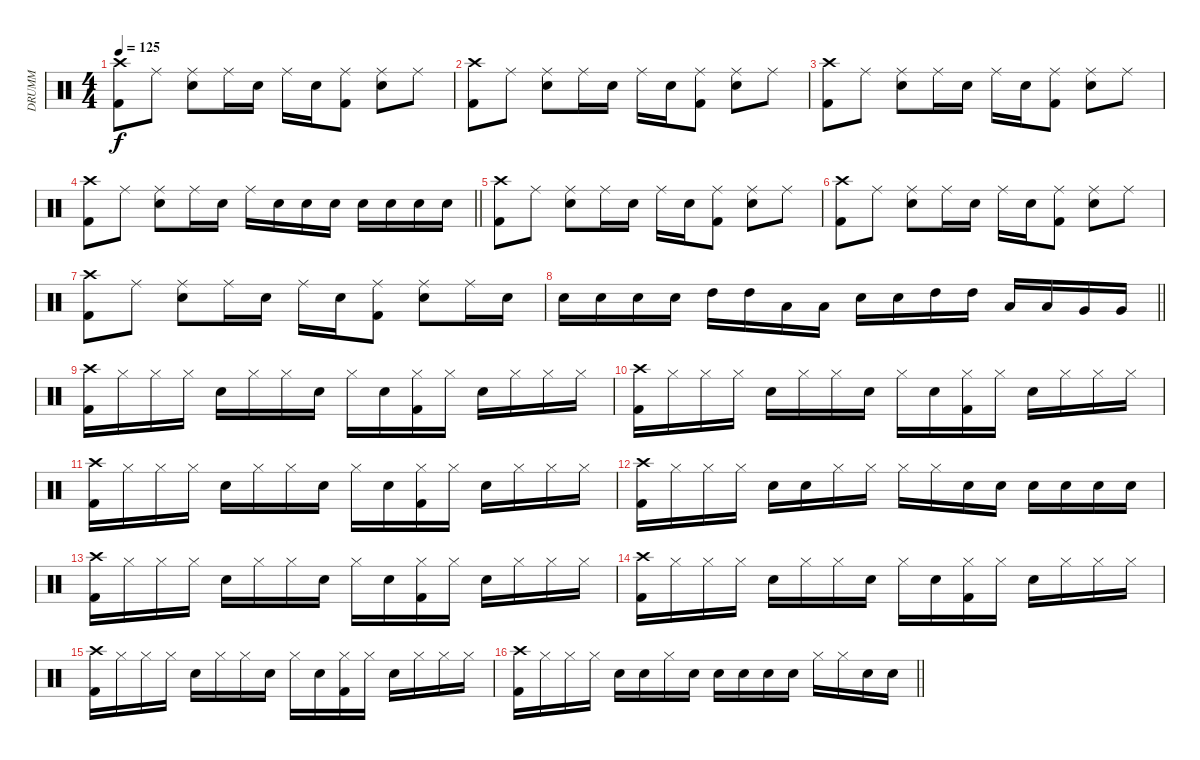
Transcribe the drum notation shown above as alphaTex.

\track ("DRUMM" "DRUMM") {instrument percussion}
\staff {score}
\articulation defaults
\ts (4 4)
\tempo 125
\clef neutral
\ks c
("Kick (hit) 2" "Crash high (hit)").8{dy f} "Ride (middle)".8 ("Ride (middle)" "Snare (hit) 2").8 "Ride (middle)".16 "Snare (hit) 2".16 "Ride (middle)".16 "Snare (hit) 2".16 ("Kick (hit) 2" "Ride (middle)").8 ("Ride (middle)" "Snare (hit) 2").8 "Ride (middle)".8 |
("Kick (hit) 2" "Crash high (hit)").8 "Ride (middle)".8 ("Ride (middle)" "Snare (hit) 2").8 "Ride (middle)".16 "Snare (hit) 2".16 "Ride (middle)".16 "Snare (hit) 2".16 ("Kick (hit) 2" "Ride (middle)").8 ("Ride (middle)" "Snare (hit) 2").8 "Ride (middle)".8 |
("Kick (hit) 2" "Crash high (hit)").8 "Ride (middle)".8 ("Ride (middle)" "Snare (hit) 2").8 "Ride (middle)".16 "Snare (hit) 2".16 "Ride (middle)".16 "Snare (hit) 2".16 ("Kick (hit) 2" "Ride (middle)").8 ("Ride (middle)" "Snare (hit) 2").8 "Ride (middle)".8 |
\barLineRight lightlight
("Kick (hit) 2" "Crash high (hit)").8 "Ride (middle)".8 ("Ride (middle)" "Snare (hit) 2").8 "Ride (middle)".16 "Snare (hit) 2".16 "Ride (middle)".16 "Snare (hit) 2".16 "Snare (hit) 2".16 "Snare (hit) 2".16 "Snare (hit) 2".16 "Snare (hit) 2".16 "Snare (hit) 2".16 "Snare (hit) 2".16 |
("Kick (hit) 2" "Crash high (hit)").8 "Ride (middle)".8 ("Ride (middle)" "Snare (hit) 2").8 "Ride (middle)".16 "Snare (hit) 2".16 "Ride (middle)".16 "Snare (hit) 2".16 ("Kick (hit) 2" "Ride (middle)").8 ("Ride (middle)" "Snare (hit) 2").8 "Ride (middle)".8 |
("Kick (hit) 2" "Crash high (hit)").8 "Ride (middle)".8 ("Ride (middle)" "Snare (hit) 2").8 "Ride (middle)".16 "Snare (hit) 2".16 "Ride (middle)".16 "Snare (hit) 2".16 ("Kick (hit) 2" "Ride (middle)").8 ("Ride (middle)" "Snare (hit) 2").8 "Ride (middle)".8 |
("Kick (hit) 2" "Crash high (hit)").8 "Ride (middle)".8 ("Ride (middle)" "Snare (hit) 2").8 "Ride (middle)".16 "Snare (hit) 2".16 "Ride (middle)".16 "Snare (hit) 2".16 ("Kick (hit) 2" "Ride (middle)").8 ("Ride (middle)" "Snare (hit) 2").8 "Ride (middle)".16 "Snare (hit) 2".16 |
\barLineRight lightlight "Snare (hit) 2".16 "Snare (hit) 2".16 "Snare (hit) 2".16 "Snare (hit) 2".16 "High Tom (hit)".16 "High Tom (hit)".16 "Low Tom (hit)".16 "Low Tom (hit)".16 "Snare (hit) 2".16 "Snare (hit) 2".16 "High Tom (hit)".16 "High Tom (hit)".16 "Low Tom (hit)".16 "Low Tom (hit)".16 "Very Low Tom (hit)".16 "Very Low Tom (hit)".16
|
("Kick (hit) 2" "Crash high (hit)").16 "Hi-Hat (closed)".16 "Hi-Hat (closed)".16 "Hi-Hat (closed)".16 "Snare (hit) 2".16 "Hi-Hat (closed)".16 "Hi-Hat (closed)".16 "Snare (hit) 2".16 "Hi-Hat (closed)".16 "Snare (hit) 2".16 ("Kick (hit) 2" "Hi-Hat (closed)").16 "Hi-Hat (closed)".16 "Snare (hit) 2".16 "Hi-Hat (closed)".16 "Hi-Hat (closed)".16 "Hi-Hat (closed)".16 |
("Kick (hit) 2" "Crash high (hit)").16 "Hi-Hat (closed)".16 "Hi-Hat (closed)".16 "Hi-Hat (closed)".16 "Snare (hit) 2".16 "Hi-Hat (closed)".16 "Hi-Hat (closed)".16 "Snare (hit) 2".16 "Hi-Hat (closed)".16 "Snare (hit) 2".16 ("Kick (hit) 2" "Hi-Hat (closed)").16 "Hi-Hat (closed)".16 "Snare (hit) 2".16 "Hi-Hat (closed)".16 "Hi-Hat (closed)".16 "Hi-Hat (closed)".16 |
("Kick (hit) 2" "Crash high (hit)").16 "Hi-Hat (closed)".16 "Hi-Hat (closed)".16 "Hi-Hat (closed)".16 "Snare (hit) 2".16 "Hi-Hat (closed)".16 "Hi-Hat (closed)".16 "Snare (hit) 2".16 "Hi-Hat (closed)".16 "Snare (hit) 2".16 ("Kick (hit) 2" "Hi-Hat (closed)").16 "Hi-Hat (closed)".16 "Snare (hit) 2".16 "Hi-Hat (closed)".16 "Hi-Hat (closed)".16 "Hi-Hat (closed)".16 |
("Kick (hit) 2" "Crash high (hit)").16 "Hi-Hat (closed)".16 "Hi-Hat (closed)".16 "Hi-Hat (closed)".16 "Snare (hit) 2".16 "Snare (hit) 2".16 "Hi-Hat (closed)".16 "Hi-Hat (closed)".16 "Hi-Hat (closed)".16 "Hi-Hat (closed)".16 "Snare (hit) 2".16 "Snare (hit) 2".16 "Snare (hit) 2".16 "Snare (hit) 2".16 "Snare (hit) 2".16 "Snare (hit) 2".16 |
("Kick (hit) 2" "Crash high (hit)").16 "Hi-Hat (closed)".16 "Hi-Hat (closed)".16 "Hi-Hat (closed)".16 "Snare (hit) 2".16 "Hi-Hat (closed)".16 "Hi-Hat (closed)".16 "Snare (hit) 2".16 "Hi-Hat (closed)".16 "Snare (hit) 2".16 ("Kick (hit) 2" "Hi-Hat (closed)").16 "Hi-Hat (closed)".16 "Snare (hit) 2".16 "Hi-Hat (closed)".16 "Hi-Hat (closed)".16 "Hi-Hat (closed)".16 |
("Kick (hit) 2" "Crash high (hit)").16 "Hi-Hat (closed)".16 "Hi-Hat (closed)".16 "Hi-Hat (closed)".16 "Snare (hit) 2".16 "Hi-Hat (closed)".16 "Hi-Hat (closed)".16 "Snare (hit) 2".16 "Hi-Hat (closed)".16 "Snare (hit) 2".16 ("Kick (hit) 2" "Hi-Hat (closed)").16 "Hi-Hat (closed)".16 "Snare (hit) 2".16 "Hi-Hat (closed)".16 "Hi-Hat (closed)".16 "Hi-Hat (closed)".16 |
("Kick (hit) 2" "Crash high (hit)").16 "Hi-Hat (closed)".16 "Hi-Hat (closed)".16 "Hi-Hat (closed)".16 "Snare (hit) 2".16 "Hi-Hat (closed)".16 "Hi-Hat (closed)".16 "Snare (hit) 2".16 "Hi-Hat (closed)".16 "Snare (hit) 2".16 ("Kick (hit) 2" "Hi-Hat (closed)").16 "Hi-Hat (closed)".16 "Snare (hit) 2".16 "Hi-Hat (closed)".16 "Hi-Hat (closed)".16 "Hi-Hat (closed)".16 |
\barLineRight lightlight
("Kick (hit) 2" "Crash high (hit)").16 "Hi-Hat (closed)".16 "Hi-Hat (closed)".16 "Hi-Hat (closed)".16 "Snare (hit) 2".16 "Snare (hit) 2".16 "Hi-Hat (closed)".16 "Snare (hit) 2".16 "Snare (hit) 2".16 "Snare (hit) 2".16 "Snare (hit) 2".16 "Snare (hit) 2".16 "Hi-Hat (closed)".16 "Hi-Hat (closed)".16 "Snare (hit) 2".16 "Snare (hit) 2".16
